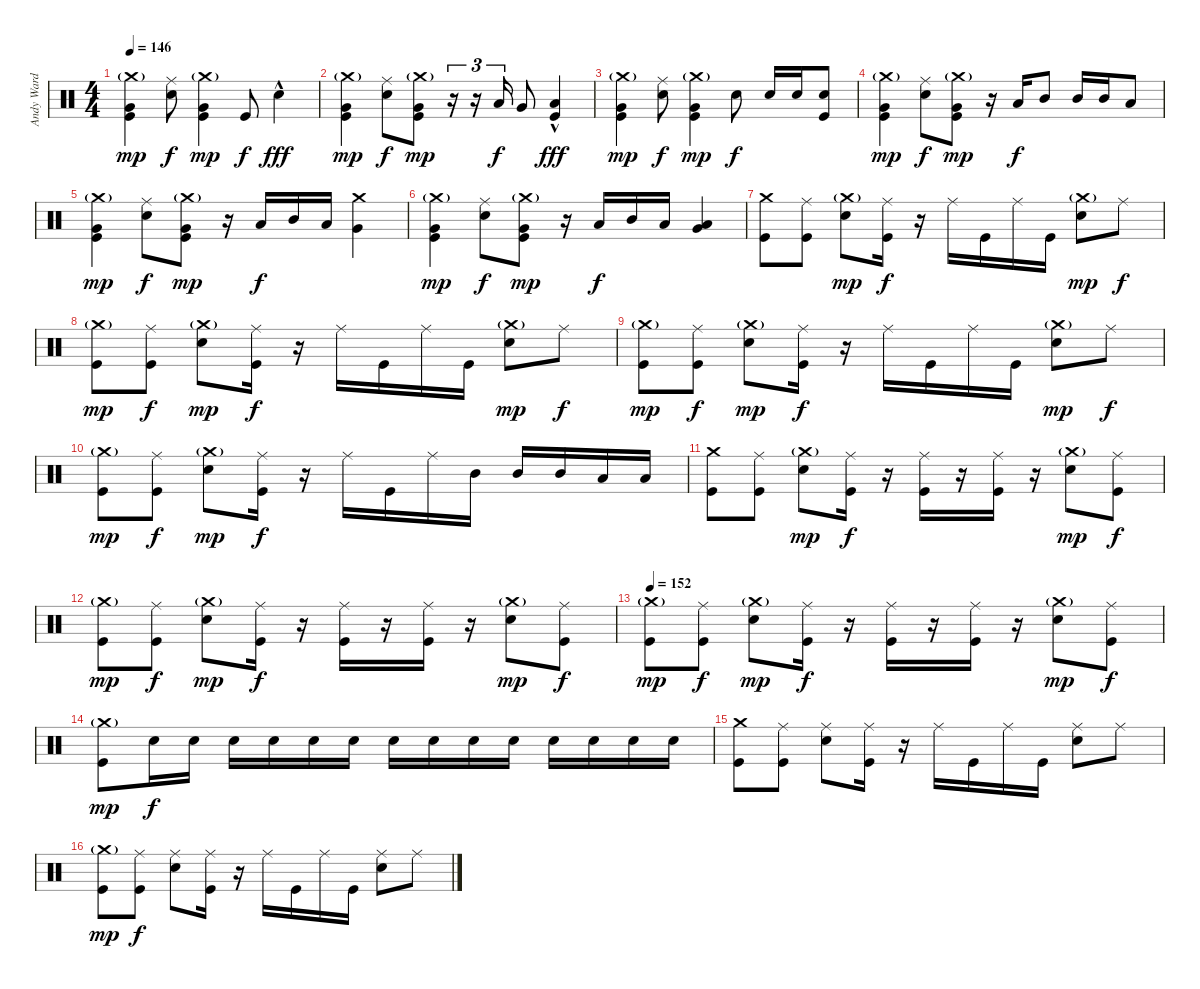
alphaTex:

\track ("Andy Ward (Drums)" "Andy Ward ") {instrument percussion}
\staff {score}
\articulation defaults
\ts (4 4)
\tempo 146
\clef neutral
\ks c
("Crash medium (hit)"{g} "Very Low Tom (hit)" "Kick (hit)").4{dy mp} ("Ride (middle)" "Electric Snare (hit)").8{dy f} ("Crash medium (hit)"{g} "Very Low Tom (hit)" "Kick (hit)").4{dy mp} "Kick (hit)".8{dy f} "Electric Snare (hit)"{hac}.4{dy fff} |
("Crash medium (hit)"{g} "Very Low Tom (hit)" "Kick (hit)").4{dy mp} ("Ride (middle)" "Electric Snare (hit)").8{dy f} ("Crash medium (hit)"{g} "Very Low Tom (hit)" "Kick (hit)").8{dy mp} r.16{tu (3 2)} r.16{tu (3 2)} "Low Tom (hit)".16{tu (3 2) dy f} "Very Low Tom (hit)".8 ("Low Floor Tom (hit)"{hac} "Kick (hit)").4{dy fff} |
("Crash medium (hit)"{g} "Very Low Tom (hit)" "Kick (hit)").4{dy mp} ("Ride (middle)" "Electric Snare (hit)").8{dy f} ("Crash medium (hit)"{g} "Very Low Tom (hit)" "Kick (hit)").4{dy mp} "Electric Snare (hit)".8{dy f} "Electric Snare (hit)".16 "Electric Snare (hit)".16 ("Electric Snare (hit)" "Kick (hit)").8 |
("Crash medium (hit)"{g} "Very Low Tom (hit)" "Kick (hit)").4{dy mp} ("Ride (middle)" "Electric Snare (hit)").8{dy f} ("Crash medium (hit)"{g} "Very Low Tom (hit)" "Kick (hit)").8{dy mp} r.16 "Low Tom (hit)".16{dy f} "Mid Tom (hit)".8 "Mid Tom (hit)".16 "Mid Tom (hit)".16 "Low Tom (hit)".8 |
("Crash medium (hit)"{g} "Very Low Tom (hit)" "Kick (hit)").4{dy mp} ("Ride (middle)" "Electric Snare (hit)").8{dy f} ("Crash medium (hit)"{g} "Very Low Tom (hit)" "Kick (hit)").8{dy mp} r.16 "Low Tom (hit)".16{dy f} "Mid Tom (hit)".16 "Low Tom (hit)".16 ("Crash medium (hit)" "Very Low Tom (hit)").4 |
("Crash medium (hit)"{g} "Very Low Tom (hit)" "Kick (hit)").4{dy mp} ("Ride (middle)" "Electric Snare (hit)").8{dy f} ("Crash medium (hit)"{g} "Very Low Tom (hit)" "Kick (hit)").8{dy mp} r.16 "Low Tom (hit)".16{dy f} "Mid Tom (hit)".16 "Low Tom (hit)".16 ("Low Floor Tom (hit)" "Very Low Tom (hit)").4 |
("Crash medium (hit)" "Kick (hit)").8 ("Ride (middle)" "Kick (hit)").8 ("Crash medium (hit)"{g} "Electric Snare (hit)").8{dy mp} ("Ride (middle)" "Kick (hit)").16{dy f} r.16 "Ride (middle)".16 "Kick (hit)".16 "Ride (middle)".16 "Kick (hit)".16 ("Crash medium (hit)"{g} "Electric Snare (hit)").8{dy mp} "Ride (middle)".8{dy f} |
("Crash medium (hit)"{g} "Kick (hit)").8{dy mp} ("Ride (middle)" "Kick (hit)").8{dy f} ("Crash medium (hit)"{g} "Electric Snare (hit)").8{dy mp} ("Ride (middle)" "Kick (hit)").16{dy f} r.16 "Ride (middle)".16 "Kick (hit)".16 "Ride (middle)".16 "Kick (hit)".16 ("Crash medium (hit)"{g} "Electric Snare (hit)").8{dy mp} "Ride (middle)".8{dy f} |
("Crash medium (hit)"{g} "Kick (hit)").8{dy mp} ("Ride (middle)" "Kick (hit)").8{dy f} ("Crash medium (hit)"{g} "Electric Snare (hit)").8{dy mp} ("Ride (middle)" "Kick (hit)").16{dy f} r.16 "Ride (middle)".16 "Kick (hit)".16 "Ride (middle)".16 "Kick (hit)".16 ("Crash medium (hit)"{g} "Electric Snare (hit)").8{dy mp} "Ride (middle)".8{dy f} |
("Crash medium (hit)"{g} "Kick (hit)").8{dy mp} ("Ride (middle)" "Kick (hit)").8{dy f} ("Crash medium (hit)"{g} "Electric Snare (hit)").8{dy mp} ("Ride (middle)" "Kick (hit)").16{dy f} r.16 "Ride (middle)".16 "Kick (hit)".16 "Ride (middle)".16 "Mid Tom (hit)".16 "Mid Tom (hit)".16 "Mid Tom (hit)".16 "Low Tom (hit)".16 "Low Tom (hit)".16 |
("Crash medium (hit)" "Kick (hit)").8 ("Ride (middle)" "Kick (hit)").8 ("Crash medium (hit)"{g} "Electric Snare (hit)").8{dy mp} ("Ride (middle)" "Kick (hit)").16{dy f} r.16 ("Ride (middle)" "Kick (hit)").16 r.16 ("Ride (middle)" "Kick (hit)").16 r.16 ("Crash medium (hit)"{g} "Electric Snare (hit)").8{dy mp} ("Ride (middle)" "Kick (hit)").8{dy f} |
("Crash medium (hit)"{g} "Kick (hit)").8{dy mp} ("Ride (middle)" "Kick (hit)").8{dy f} ("Crash medium (hit)"{g} "Electric Snare (hit)").8{dy mp} ("Ride (middle)" "Kick (hit)").16{dy f} r.16 ("Ride (middle)" "Kick (hit)").16 r.16 ("Ride (middle)" "Kick (hit)").16 r.16 ("Crash medium (hit)"{g} "Electric Snare (hit)").8{dy mp} ("Ride (middle)" "Kick (hit)").8{dy f} |
\tempo 152
("Crash medium (hit)"{g} "Kick (hit)").8{dy mp} ("Ride (middle)" "Kick (hit)").8{dy f} ("Crash medium (hit)"{g} "Electric Snare (hit)").8{dy mp} ("Ride (middle)" "Kick (hit)").16{dy f} r.16 ("Ride (middle)" "Kick (hit)").16 r.16 ("Ride (middle)" "Kick (hit)").16 r.16 ("Crash medium (hit)"{g} "Electric Snare (hit)").8{dy mp} ("Ride (middle)" "Kick (hit)").8{dy f} |
("Crash medium (hit)"{g} "Kick (hit)").8{dy mp} "Electric Snare (hit)".16{dy f} "Electric Snare (hit)".16 "Electric Snare (hit)".16 "Electric Snare (hit)".16 "Electric Snare (hit)".16 "Electric Snare (hit)".16 "Electric Snare (hit)".16 "Electric Snare (hit)".16 "Electric Snare (hit)".16 "Electric Snare (hit)".16 "Electric Snare (hit)".16 "Electric Snare (hit)".16 "Electric Snare (hit)".16 "Electric Snare (hit)".16 |
("Crash medium (hit)" "Kick (hit)").8 ("Ride (middle)" "Kick (hit)").8 ("Ride (middle)" "Electric Snare (hit)").8 ("Ride (middle)" "Kick (hit)").16 r.16 "Ride (middle)".16 "Kick (hit)".16 "Ride (middle)".16 "Kick (hit)".16 ("Ride (middle)" "Electric Snare (hit)").8 "Ride (middle)".8 |
("Crash medium (hit)"{g} "Kick (hit)").8{dy mp} ("Ride (middle)" "Kick (hit)").8{dy f} ("Ride (middle)" "Electric Snare (hit)").8 ("Ride (middle)" "Kick (hit)").16 r.16 "Ride (middle)".16 "Kick (hit)".16 "Ride (middle)".16 "Kick (hit)".16 ("Ride (middle)" "Electric Snare (hit)").8 "Ride (middle)".8
